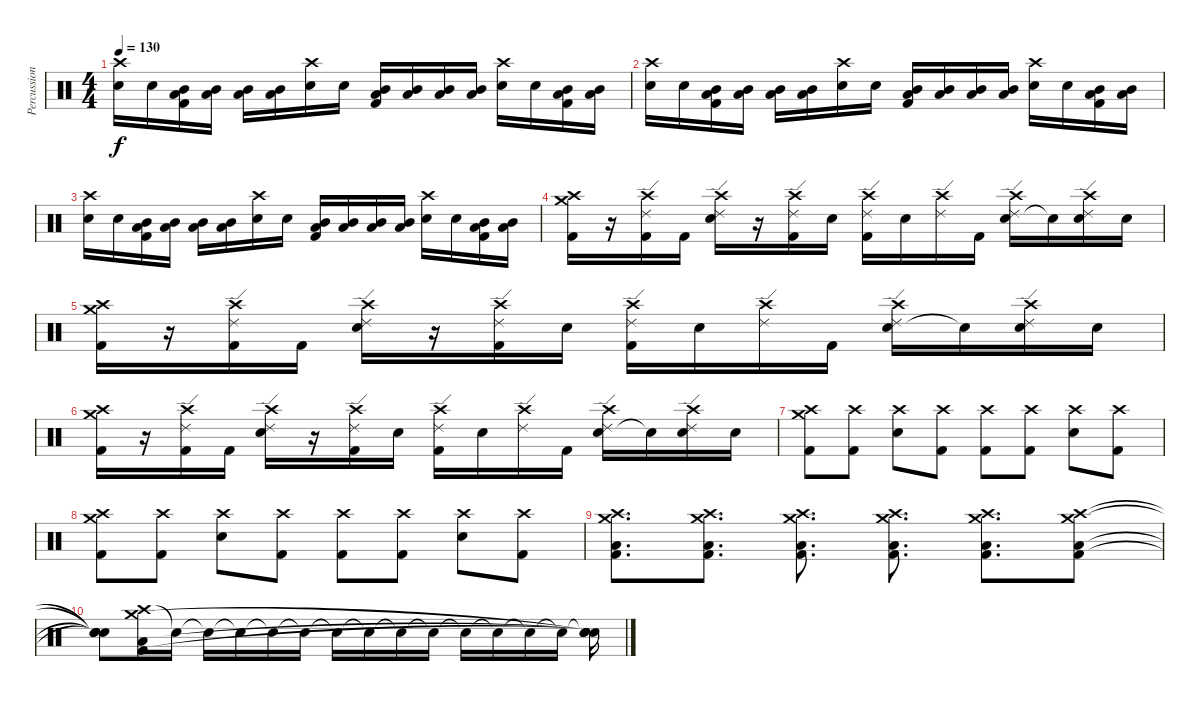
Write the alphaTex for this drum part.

\track ("Percussion" "Percussion") {instrument percussion}
\staff {score}
\articulation defaults
\ts (4 4)
\tempo 130
\clef neutral
\ks c
("Snare (hit) 2" "Crash high (hit)").16{dy f} "Snare (hit) 2".16 ("Kick (hit) 2" "Low Floor Tom (hit)" "Mid Tom (hit)").16 ("Low Floor Tom (hit)" "Mid Tom (hit)").16 ("Low Floor Tom (hit)" "Mid Tom (hit)").16 ("Low Floor Tom (hit)" "Mid Tom (hit)").16 ("Snare (hit) 2" "Crash high (hit)").16 "Snare (hit) 2".16 ("Kick (hit) 2" "Low Floor Tom (hit)" "Mid Tom (hit)").16 ("Low Floor Tom (hit)" "Mid Tom (hit)").16 ("Low Floor Tom (hit)" "Mid Tom (hit)").16 ("Low Floor Tom (hit)" "Mid Tom (hit)").16 ("Snare (hit) 2" "Crash high (hit)").16 "Snare (hit) 2".16 ("Kick (hit) 2" "Low Floor Tom (hit)" "Mid Tom (hit)").16 ("Low Floor Tom (hit)" "Mid Tom (hit)").16 |
("Snare (hit) 2" "Crash high (hit)").16 "Snare (hit) 2".16 ("Kick (hit) 2" "Low Floor Tom (hit)" "Mid Tom (hit)").16 ("Low Floor Tom (hit)" "Mid Tom (hit)").16 ("Low Floor Tom (hit)" "Mid Tom (hit)").16 ("Low Floor Tom (hit)" "Mid Tom (hit)").16 ("Snare (hit) 2" "Crash high (hit)").16 "Snare (hit) 2".16 ("Kick (hit) 2" "Low Floor Tom (hit)" "Mid Tom (hit)").16 ("Low Floor Tom (hit)" "Mid Tom (hit)").16 ("Low Floor Tom (hit)" "Mid Tom (hit)").16 ("Low Floor Tom (hit)" "Mid Tom (hit)").16 ("Snare (hit) 2" "Crash high (hit)").16 "Snare (hit) 2".16 ("Kick (hit) 2" "Low Floor Tom (hit)" "Mid Tom (hit)").16 ("Low Floor Tom (hit)" "Mid Tom (hit)").16 |
("Snare (hit) 2" "Crash high (hit)").16 "Snare (hit) 2".16 ("Kick (hit) 2" "Low Floor Tom (hit)" "Mid Tom (hit)").16 ("Low Floor Tom (hit)" "Mid Tom (hit)").16 ("Low Floor Tom (hit)" "Mid Tom (hit)").16 ("Low Floor Tom (hit)" "Mid Tom (hit)").16 ("Snare (hit) 2" "Crash high (hit)").16 "Snare (hit) 2".16 ("Kick (hit) 2" "Low Floor Tom (hit)" "Mid Tom (hit)").16 ("Low Floor Tom (hit)" "Mid Tom (hit)").16 ("Low Floor Tom (hit)" "Mid Tom (hit)").16 ("Low Floor Tom (hit)" "Mid Tom (hit)").16 ("Snare (hit) 2" "Crash high (hit)").16 "Snare (hit) 2".16 ("Kick (hit) 2" "Low Floor Tom (hit)" "Mid Tom (hit)").16 ("Low Floor Tom (hit)" "Mid Tom (hit)").16 |
("Kick (hit) 2" "Crash high (hit)" "Crash medium (hit)").16 r.16 ("Kick (hit) 2" "Ride (edge) 2" "Crash high (hit)").16 "Kick (hit) 2".16 ("Snare (hit) 2" "Ride (edge) 2" "Crash high (hit)").16 r.16 ("Kick (hit) 2" "Ride (edge) 2" "Crash high (hit)").16 "Snare (hit) 2".16 ("Kick (hit) 2" "Ride (edge) 2" "Crash high (hit)").16 "Snare (hit) 2".16 ("Ride (edge) 2" "Crash high (hit)").16 "Kick (hit) 2".16 ("Snare (hit) 2" "Ride (edge) 2" "Crash high (hit)").16 "Snare (hit)"{t}.16 ("Snare (hit) 2" "Ride (edge) 2" "Crash high (hit)").16 "Snare (hit) 2".16 |
("Kick (hit) 2" "Crash high (hit)" "Crash medium (hit)").16 r.16 ("Kick (hit) 2" "Ride (edge) 2" "Crash high (hit)").16 "Kick (hit) 2".16 ("Snare (hit) 2" "Ride (edge) 2" "Crash high (hit)").16 r.16 ("Kick (hit) 2" "Ride (edge) 2" "Crash high (hit)").16 "Snare (hit) 2".16 ("Kick (hit) 2" "Ride (edge) 2" "Crash high (hit)").16 "Snare (hit) 2".16 ("Ride (edge) 2" "Crash high (hit)").16 "Kick (hit) 2".16 ("Snare (hit) 2" "Ride (edge) 2" "Crash high (hit)").16 "Snare (hit)"{t}.16 ("Snare (hit) 2" "Ride (edge) 2" "Crash high (hit)").16 "Snare (hit) 2".16 |
("Kick (hit) 2" "Crash high (hit)" "Crash medium (hit)").16 r.16 ("Kick (hit) 2" "Ride (edge) 2" "Crash high (hit)").16 "Kick (hit) 2".16 ("Snare (hit) 2" "Ride (edge) 2" "Crash high (hit)").16 r.16 ("Kick (hit) 2" "Ride (edge) 2" "Crash high (hit)").16 "Snare (hit) 2".16 ("Kick (hit) 2" "Ride (edge) 2" "Crash high (hit)").16 "Snare (hit) 2".16 ("Ride (edge) 2" "Crash high (hit)").16 "Kick (hit) 2".16 ("Snare (hit) 2" "Ride (edge) 2" "Crash high (hit)").16 "Snare (hit)"{t}.16 ("Snare (hit) 2" "Ride (edge) 2" "Crash high (hit)").16 "Snare (hit) 2".16 |
("Crash high (hit)" "Kick (hit) 2" "Crash medium (hit)").8 ("Crash high (hit)" "Kick (hit) 2").8 ("Crash high (hit)" "Snare (hit) 2").8 ("Crash high (hit)" "Kick (hit) 2").8 ("Crash high (hit)" "Kick (hit) 2").8 ("Crash high (hit)" "Kick (hit) 2").8 ("Crash high (hit)" "Snare (hit) 2").8 ("Crash high (hit)" "Kick (hit) 2").8 |
("Crash high (hit)" "Kick (hit) 2" "Crash medium (hit)").8 ("Crash high (hit)" "Kick (hit) 2").8 ("Crash high (hit)" "Snare (hit) 2").8 ("Crash high (hit)" "Kick (hit) 2").8 ("Crash high (hit)" "Kick (hit) 2").8 ("Crash high (hit)" "Kick (hit) 2").8 ("Crash high (hit)" "Snare (hit) 2").8 ("Crash high (hit)" "Kick (hit) 2").8 |
("Crash high (hit)" "Low Floor Tom (hit)" "Kick (hit) 2" "Crash medium (hit)").8{d} ("Crash high (hit)" "Low Floor Tom (hit)" "Kick (hit) 2" "Crash medium (hit)").8{d} ("Crash high (hit)" "Low Floor Tom (hit)" "Kick (hit) 2" "Crash medium (hit)").8{d} ("Crash high (hit)" "Low Floor Tom (hit)" "Kick (hit) 2" "Crash medium (hit)").8{d} ("Crash high (hit)" "Low Floor Tom (hit)" "Kick (hit) 2" "Crash medium (hit)").8{d} ("Crash high (hit)" "Low Floor Tom (hit)" "Kick (hit) 2" "Crash medium (hit)").8 |
("Snare (hit)"{t} "Snare (hit)"{t} "Snare (hit)"{t} "Snare (hit)"{t}).8 ("Crash high (hit)" "Low Floor Tom (hit)" "Kick (hit) 2" "Crash medium (hit)").16 "Snare (hit)"{t}.16 "Snare (hit)"{t}.16 "Snare (hit)"{t}.16 "Snare (hit)"{t}.16 "Snare (hit)"{t}.16 "Snare (hit)"{t}.16 "Snare (hit)"{t}.16 "Snare (hit)"{t}.16 "Snare (hit)"{t}.16 "Snare (hit)"{t}.16 "Snare (hit)"{t}.16 "Snare (hit)"{t}.16 "Snare (hit)"{t}.16 ("Snare (hit)"{t} "Snare (hit)"{t} "Snare (hit)"{t} "Snare (hit)"{t}).16
